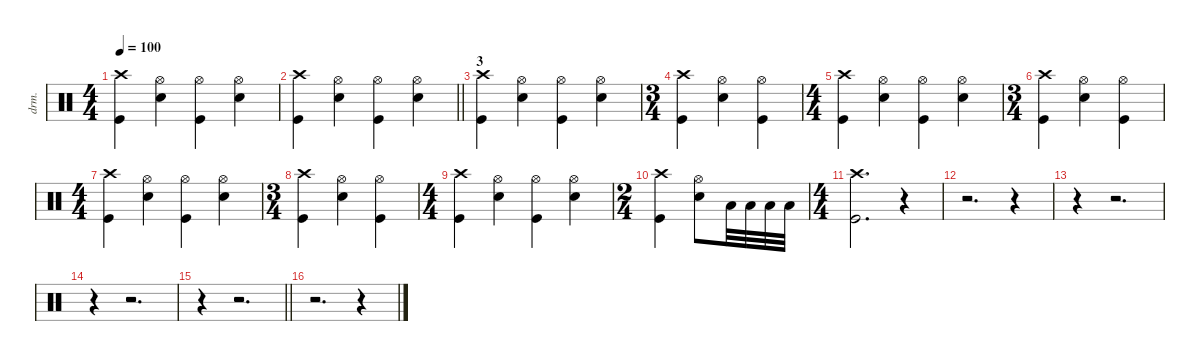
\defaultSystemsLayout 4
\hideDynamics
\bracketExtendMode nobrackets
\otherSystemsTrackNameOrientation horizontal
\track ("Drumkit" "drm.") {instrument percussion}
\staff {score}
\articulation defaults
\ts (4 4)
\tempo 100
\clef neutral
\ks c
("Crash high (hit)" "Kick (hit)").4{dy f} ("Hi-Hat (open)" "Snare (hit) 2").4 ("Hi-Hat (open)" "Kick (hit)").4 ("Hi-Hat (open)" "Snare (hit) 2").4 |
\barLineRight lightlight
("Crash high (hit)" "Kick (hit)").4 ("Hi-Hat (open)" "Snare (hit) 2").4 ("Hi-Hat (open)" "Kick (hit)").4 ("Hi-Hat (open)" "Snare (hit) 2").4 |
\section ("" "3")
("Crash high (hit)" "Kick (hit)").4 ("Hi-Hat (open)" "Snare (hit) 2").4 ("Hi-Hat (open)" "Kick (hit)").4 ("Hi-Hat (open)" "Snare (hit) 2").4 |
\ts (3 4)
\beaming (8 2 2 2)
("Crash high (hit)" "Kick (hit)").4 ("Hi-Hat (open)" "Snare (hit) 2").4 ("Hi-Hat (open)" "Kick (hit)").4 |
\ts (4 4)
\beaming (8 2 2 2 2)
("Crash high (hit)" "Kick (hit)").4 ("Hi-Hat (open)" "Snare (hit) 2").4 ("Hi-Hat (open)" "Kick (hit)").4 ("Hi-Hat (open)" "Snare (hit) 2").4 |
\ts (3 4)
\beaming (8 2 2 2)
("Crash high (hit)" "Kick (hit)").4 ("Hi-Hat (open)" "Snare (hit) 2").4 ("Hi-Hat (open)" "Kick (hit)").4 |
\ts (4 4)
\beaming (8 2 2 2 2)
("Crash high (hit)" "Kick (hit)").4 ("Hi-Hat (open)" "Snare (hit) 2").4 ("Hi-Hat (open)" "Kick (hit)").4 ("Hi-Hat (open)" "Snare (hit) 2").4 |
\ts (3 4)
\beaming (8 2 2 2 2)
("Crash high (hit)" "Kick (hit)").4 ("Hi-Hat (open)" "Snare (hit) 2").4 ("Hi-Hat (open)" "Kick (hit)").4 |
\ts (4 4)
\beaming (8 2 2 2 2)
("Crash high (hit)" "Kick (hit)").4 ("Hi-Hat (open)" "Snare (hit) 2").4 ("Hi-Hat (open)" "Kick (hit)").4 ("Hi-Hat (open)" "Snare (hit) 2").4 |
\ts (2 4)
\beaming (8 2 2)
("Crash high (hit)" "Kick (hit)").4 ("Hi-Hat (open)" "Snare (hit) 2").8 "Low Tom (hit)".32 "Low Tom (hit)".32 "Low Floor Tom (hit)".32 "Low Floor Tom (hit)".32 |
\ts (4 4)
\beaming (8 2 2 2 2)
("Crash high (hit)" "Kick (hit)").2{d} r.4 |
r.2{d} r.4 |
r.4 r.2{d} |
r.4 r.2{d} |
\barLineRight lightlight
r.4 r.2{d} |
r.2{d} r.4
